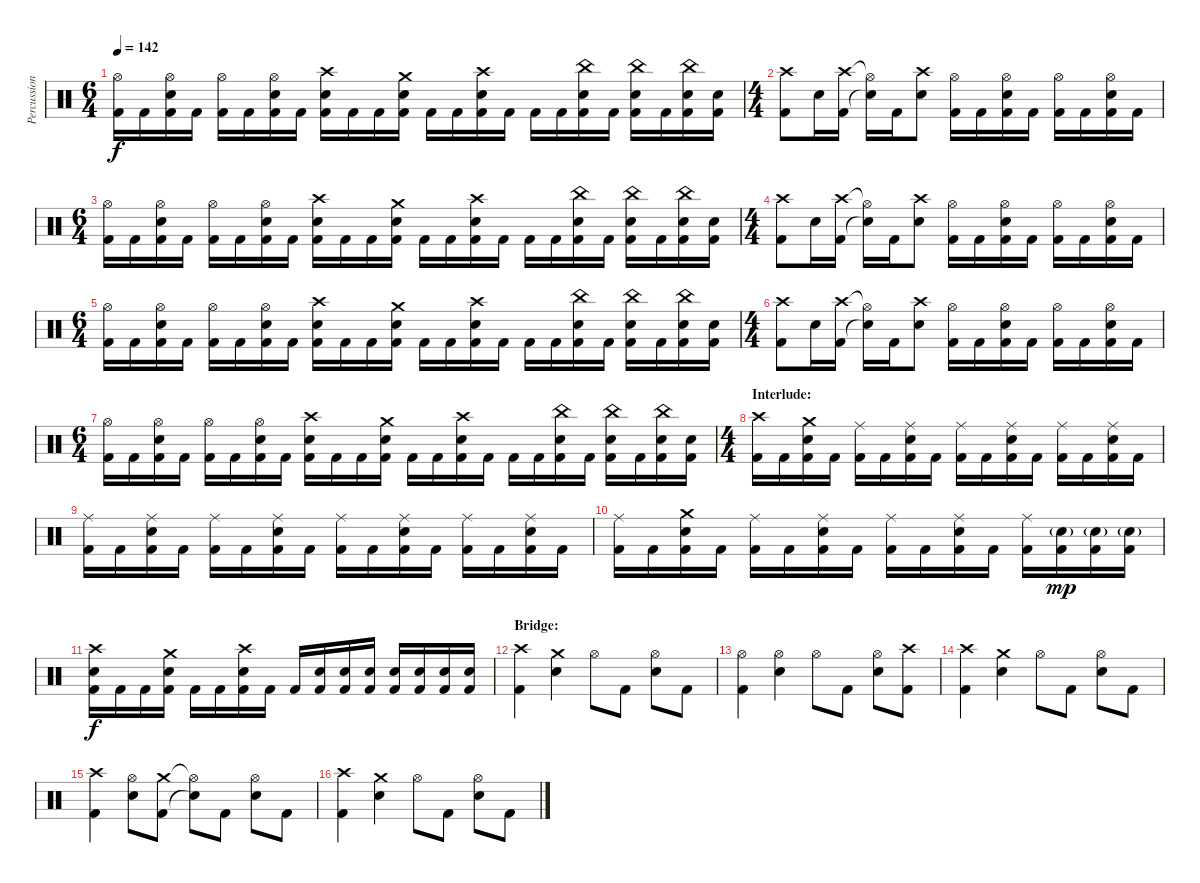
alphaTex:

\track ("Percussion" "Percussion") {instrument percussion}
\staff {score}
\articulation defaults
\ts (6 4)
\tempo 142
\clef neutral
\ks c
("Hi-Hat (open)" "Kick (hit) 2").16{dy f} "Kick (hit) 2".16 ("Hi-Hat (open)" "Snare (hit) 2" "Kick (hit) 2").16 "Kick (hit) 2".16 ("Hi-Hat (open)" "Kick (hit) 2").16 "Kick (hit) 2".16 ("Hi-Hat (open)" "Snare (hit) 2" "Kick (hit) 2").16 "Kick (hit) 2".16 ("Crash high (hit)" "Snare (hit) 2" "Kick (hit) 2").16 "Kick (hit) 2".16 "Kick (hit) 2".16 ("Crash medium (hit)" "Snare (hit) 2" "Kick (hit) 2").16 "Kick (hit) 2".16 "Kick (hit) 2".16 ("Crash high (hit)" "Snare (hit) 2" "Kick (hit) 2").16 "Kick (hit) 2".16 "Kick (hit) 2".16 "Kick (hit) 2".16 ("China (hit)" "Snare (hit) 2" "Kick (hit) 2").16 "Kick (hit) 2".16 ("China (hit)" "Snare (hit) 2" "Kick (hit) 2").16 "Kick (hit) 2".16 ("China (hit)" "Snare (hit) 2" "Kick (hit) 2").16 ("Snare (hit) 2" "Kick (hit) 2").16 |
\ts (4 4)
("Crash high (hit)" "Kick (hit) 2").8 "Snare (hit) 2".16 ("Crash high (hit)" "Kick (hit) 2").16 ("Hi-Hat (open)"{t} "Snare (hit)"{t}).16 "Kick (hit) 2".16 ("Crash high (hit)" "Snare (hit) 2").8 ("Hi-Hat (open)" "Kick (hit) 2").16 "Kick (hit) 2".16 ("Hi-Hat (open)" "Snare (hit) 2" "Kick (hit) 2").16 "Kick (hit) 2".16 ("Hi-Hat (open)" "Kick (hit) 2").16 "Kick (hit) 2".16 ("Hi-Hat (open)" "Snare (hit) 2" "Kick (hit) 2").16 "Kick (hit) 2".16 |
\ts (6 4)
("Hi-Hat (open)" "Kick (hit) 2").16 "Kick (hit) 2".16 ("Hi-Hat (open)" "Snare (hit) 2" "Kick (hit) 2").16 "Kick (hit) 2".16 ("Hi-Hat (open)" "Kick (hit) 2").16 "Kick (hit) 2".16 ("Hi-Hat (open)" "Snare (hit) 2" "Kick (hit) 2").16 "Kick (hit) 2".16 ("Crash high (hit)" "Snare (hit) 2" "Kick (hit) 2").16 "Kick (hit) 2".16 "Kick (hit) 2".16 ("Crash medium (hit)" "Snare (hit) 2" "Kick (hit) 2").16 "Kick (hit) 2".16 "Kick (hit) 2".16 ("Crash high (hit)" "Snare (hit) 2" "Kick (hit) 2").16 "Kick (hit) 2".16 "Kick (hit) 2".16 "Kick (hit) 2".16 ("China (hit)" "Snare (hit) 2" "Kick (hit) 2").16 "Kick (hit) 2".16 ("China (hit)" "Snare (hit) 2" "Kick (hit) 2").16 "Kick (hit) 2".16 ("China (hit)" "Snare (hit) 2" "Kick (hit) 2").16 ("Snare (hit) 2" "Kick (hit) 2").16 |
\ts (4 4)
("Crash high (hit)" "Kick (hit) 2").8 "Snare (hit) 2".16 ("Crash high (hit)" "Kick (hit) 2").16 ("Hi-Hat (open)"{t} "Snare (hit)"{t}).16 "Kick (hit) 2".16 ("Crash high (hit)" "Snare (hit) 2").8 ("Hi-Hat (open)" "Kick (hit) 2").16 "Kick (hit) 2".16 ("Hi-Hat (open)" "Snare (hit) 2" "Kick (hit) 2").16 "Kick (hit) 2".16 ("Hi-Hat (open)" "Kick (hit) 2").16 "Kick (hit) 2".16 ("Hi-Hat (open)" "Snare (hit) 2" "Kick (hit) 2").16 "Kick (hit) 2".16 |
\ts (6 4)
("Hi-Hat (open)" "Kick (hit) 2").16 "Kick (hit) 2".16 ("Hi-Hat (open)" "Snare (hit) 2" "Kick (hit) 2").16 "Kick (hit) 2".16 ("Hi-Hat (open)" "Kick (hit) 2").16 "Kick (hit) 2".16 ("Hi-Hat (open)" "Snare (hit) 2" "Kick (hit) 2").16 "Kick (hit) 2".16 ("Crash high (hit)" "Snare (hit) 2" "Kick (hit) 2").16 "Kick (hit) 2".16 "Kick (hit) 2".16 ("Crash medium (hit)" "Snare (hit) 2" "Kick (hit) 2").16 "Kick (hit) 2".16 "Kick (hit) 2".16 ("Crash high (hit)" "Snare (hit) 2" "Kick (hit) 2").16 "Kick (hit) 2".16 "Kick (hit) 2".16 "Kick (hit) 2".16 ("China (hit)" "Snare (hit) 2" "Kick (hit) 2").16 "Kick (hit) 2".16 ("China (hit)" "Snare (hit) 2" "Kick (hit) 2").16 "Kick (hit) 2".16 ("China (hit)" "Snare (hit) 2" "Kick (hit) 2").16 ("Snare (hit) 2" "Kick (hit) 2").16 |
\ts (4 4)
("Crash high (hit)" "Kick (hit) 2").8 "Snare (hit) 2".16 ("Crash high (hit)" "Kick (hit) 2").16 ("Hi-Hat (open)"{t} "Snare (hit)"{t}).16 "Kick (hit) 2".16 ("Crash high (hit)" "Snare (hit) 2").8 ("Hi-Hat (open)" "Kick (hit) 2").16 "Kick (hit) 2".16 ("Hi-Hat (open)" "Snare (hit) 2" "Kick (hit) 2").16 "Kick (hit) 2".16 ("Hi-Hat (open)" "Kick (hit) 2").16 "Kick (hit) 2".16 ("Hi-Hat (open)" "Snare (hit) 2" "Kick (hit) 2").16 "Kick (hit) 2".16 |
\ts (6 4)
("Hi-Hat (open)" "Kick (hit) 2").16 "Kick (hit) 2".16 ("Hi-Hat (open)" "Snare (hit) 2" "Kick (hit) 2").16 "Kick (hit) 2".16 ("Hi-Hat (open)" "Kick (hit) 2").16 "Kick (hit) 2".16 ("Hi-Hat (open)" "Snare (hit) 2" "Kick (hit) 2").16 "Kick (hit) 2".16 ("Crash high (hit)" "Snare (hit) 2" "Kick (hit) 2").16 "Kick (hit) 2".16 "Kick (hit) 2".16 ("Crash medium (hit)" "Snare (hit) 2" "Kick (hit) 2").16 "Kick (hit) 2".16 "Kick (hit) 2".16 ("Crash high (hit)" "Snare (hit) 2" "Kick (hit) 2").16 "Kick (hit) 2".16 "Kick (hit) 2".16 "Kick (hit) 2".16 ("China (hit)" "Snare (hit) 2" "Kick (hit) 2").16 "Kick (hit) 2".16 ("China (hit)" "Snare (hit) 2" "Kick (hit) 2").16 "Kick (hit) 2".16 ("China (hit)" "Snare (hit) 2" "Kick (hit) 2").16 ("Snare (hit) 2" "Kick (hit) 2").16 |
\ts (4 4)
\section ("" "Interlude:")
("Crash high (hit)" "Kick (hit) 2").16 "Kick (hit) 2".16 ("Crash medium (hit)" "Snare (hit) 2" "Kick (hit) 2").16 "Kick (hit) 2".16 ("Ride (middle)" "Kick (hit) 2").16 "Kick (hit) 2".16 ("Ride (middle)" "Snare (hit) 2" "Kick (hit) 2").16 "Kick (hit) 2".16 ("Ride (middle)" "Kick (hit) 2").16 "Kick (hit) 2".16 ("Ride (middle)" "Snare (hit) 2" "Kick (hit) 2").16 "Kick (hit) 2".16 ("Ride (middle)" "Kick (hit) 2").16 "Kick (hit) 2".16 ("Ride (middle)" "Snare (hit) 2" "Kick (hit) 2").16 "Kick (hit) 2".16 |
("Ride (middle)" "Kick (hit) 2").16 "Kick (hit) 2".16 ("Ride (middle)" "Snare (hit) 2" "Kick (hit) 2").16 "Kick (hit) 2".16 ("Ride (middle)" "Kick (hit) 2").16 "Kick (hit) 2".16 ("Ride (middle)" "Snare (hit) 2" "Kick (hit) 2").16 "Kick (hit) 2".16 ("Ride (middle)" "Kick (hit) 2").16 "Kick (hit) 2".16 ("Ride (middle)" "Snare (hit) 2" "Kick (hit) 2").16 "Kick (hit) 2".16 ("Ride (middle)" "Kick (hit) 2").16 "Kick (hit) 2".16 ("Ride (middle)" "Snare (hit) 2" "Kick (hit) 2").16 "Kick (hit) 2".16 |
("Ride (middle)" "Kick (hit) 2").16 "Kick (hit) 2".16 ("Crash medium (hit)" "Snare (hit) 2" "Kick (hit) 2").16 "Kick (hit) 2".16 ("Ride (middle)" "Kick (hit) 2").16 "Kick (hit) 2".16 ("Ride (middle)" "Snare (hit) 2" "Kick (hit) 2").16 "Kick (hit) 2".16 ("Ride (middle)" "Kick (hit) 2").16 "Kick (hit) 2".16 ("Ride (middle)" "Snare (hit) 2" "Kick (hit) 2").16 "Kick (hit) 2".16 ("Ride (middle)" "Kick (hit) 2").16 ("Snare (hit) 2"{g} "Kick (hit) 2").16{dy mp} ("Snare (hit) 2"{g} "Kick (hit) 2").16 ("Snare (hit) 2"{g} "Kick (hit) 2").16 |
("Crash high (hit)" "Snare (hit) 2" "Kick (hit) 2").16{dy f} "Kick (hit) 2".16 "Kick (hit) 2".16 ("Crash medium (hit)" "Snare (hit) 2" "Kick (hit) 2").16 "Kick (hit) 2".16 "Kick (hit) 2".16 ("Crash high (hit)" "Snare (hit) 2" "Kick (hit) 2").16 "Kick (hit) 2".16 "Kick (hit) 2".16 ("Snare (hit) 2" "Kick (hit) 2").16 ("Snare (hit) 2" "Kick (hit) 2").16 ("Snare (hit) 2" "Kick (hit) 2").16 ("Snare (hit) 2" "Kick (hit) 2").16 ("Snare (hit) 2" "Kick (hit) 2").16 ("Snare (hit) 2" "Kick (hit) 2").16 ("Snare (hit) 2" "Kick (hit) 2").16 |
\section ("" "Bridge:")
("Crash high (hit)" "Kick (hit) 2").4 ("Crash medium (hit)" "Snare (hit) 2").4 "Hi-Hat (open)".8 "Kick (hit) 2".8 ("Hi-Hat (open)" "Snare (hit) 2").8 "Kick (hit) 2".8 |
("Hi-Hat (open)" "Kick (hit) 2").4 ("Hi-Hat (open)" "Snare (hit) 2").4 "Hi-Hat (open)".8 "Kick (hit) 2".8 ("Hi-Hat (open)" "Snare (hit) 2").8 ("Crash high (hit)" "Kick (hit) 2").8 |
("Crash high (hit)" "Kick (hit) 2").4 ("Crash medium (hit)" "Snare (hit) 2").4 "Hi-Hat (open)".8 "Kick (hit) 2".8 ("Hi-Hat (open)" "Snare (hit) 2").8 "Kick (hit) 2".8 |
("Crash high (hit)" "Kick (hit) 2").4 ("Hi-Hat (open)" "Snare (hit) 2").8 ("Crash medium (hit)" "Kick (hit) 2").8 ("Hi-Hat (open)"{t} "Snare (hit)"{t}).8 "Kick (hit) 2".8 ("Hi-Hat (open)" "Snare (hit) 2").8 "Kick (hit) 2".8 |
("Crash high (hit)" "Kick (hit) 2").4 ("Crash medium (hit)" "Snare (hit) 2").4 "Hi-Hat (open)".8 "Kick (hit) 2".8 ("Hi-Hat (open)" "Snare (hit) 2").8 "Kick (hit) 2".8
